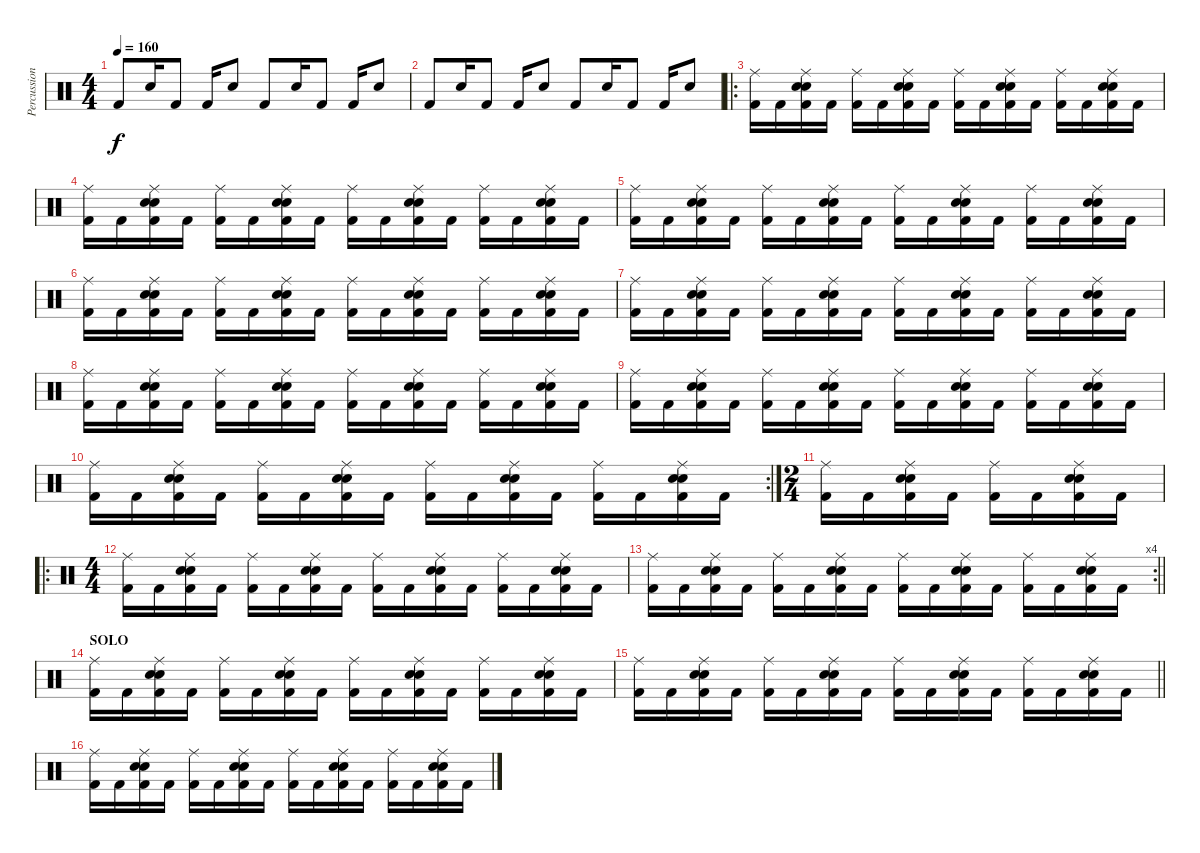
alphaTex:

\track ("Percussion" "Percussion") {instrument percussion}
\staff {score}
\articulation defaults
\ts (4 4)
\tempo 160
\clef neutral
\ks c "Kick (hit) 2".8{dy f} "Electric Snare (hit)".16 "Kick (hit) 2".8 "Kick (hit) 2".16 "Electric Snare (hit)".8 "Kick (hit) 2".8 "Electric Snare (hit)".16 "Kick (hit) 2".8 "Kick (hit) 2".16 "Electric Snare (hit)".8
|
"Kick (hit) 2".8 "Electric Snare (hit)".16 "Kick (hit) 2".8 "Kick (hit) 2".16 "Electric Snare (hit)".8 "Kick (hit) 2".8 "Electric Snare (hit)".16 "Kick (hit) 2".8 "Kick (hit) 2".16 "Electric Snare (hit)".8 |
\ro
("Ride (middle)" "Kick (hit) 2").16 "Kick (hit) 2".16 ("Electric Snare (hit)" "Snare (hit) 2" "Ride (middle)" "Kick (hit) 2").16 "Kick (hit) 2".16 ("Ride (middle)" "Kick (hit) 2").16 "Kick (hit) 2".16 ("Electric Snare (hit)" "Snare (hit) 2" "Ride (middle)" "Kick (hit) 2").16 "Kick (hit) 2".16 ("Ride (middle)" "Kick (hit) 2").16 "Kick (hit) 2".16 ("Electric Snare (hit)" "Snare (hit) 2" "Ride (middle)" "Kick (hit) 2").16 "Kick (hit) 2".16 ("Ride (middle)" "Kick (hit) 2").16 "Kick (hit) 2".16 ("Electric Snare (hit)" "Snare (hit) 2" "Ride (middle)" "Kick (hit) 2").16 "Kick (hit) 2".16 |
("Ride (middle)" "Kick (hit) 2").16 "Kick (hit) 2".16 ("Electric Snare (hit)" "Snare (hit) 2" "Ride (middle)" "Kick (hit) 2").16 "Kick (hit) 2".16 ("Ride (middle)" "Kick (hit) 2").16 "Kick (hit) 2".16 ("Electric Snare (hit)" "Snare (hit) 2" "Ride (middle)" "Kick (hit) 2").16 "Kick (hit) 2".16 ("Ride (middle)" "Kick (hit) 2").16 "Kick (hit) 2".16 ("Electric Snare (hit)" "Snare (hit) 2" "Ride (middle)" "Kick (hit) 2").16 "Kick (hit) 2".16 ("Ride (middle)" "Kick (hit) 2").16 "Kick (hit) 2".16 ("Electric Snare (hit)" "Snare (hit) 2" "Ride (middle)" "Kick (hit) 2").16 "Kick (hit) 2".16 |
("Ride (middle)" "Kick (hit) 2").16 "Kick (hit) 2".16 ("Electric Snare (hit)" "Snare (hit) 2" "Ride (middle)" "Kick (hit) 2").16 "Kick (hit) 2".16 ("Ride (middle)" "Kick (hit) 2").16 "Kick (hit) 2".16 ("Electric Snare (hit)" "Snare (hit) 2" "Ride (middle)" "Kick (hit) 2").16 "Kick (hit) 2".16 ("Ride (middle)" "Kick (hit) 2").16 "Kick (hit) 2".16 ("Electric Snare (hit)" "Snare (hit) 2" "Ride (middle)" "Kick (hit) 2").16 "Kick (hit) 2".16 ("Ride (middle)" "Kick (hit) 2").16 "Kick (hit) 2".16 ("Electric Snare (hit)" "Snare (hit) 2" "Ride (middle)" "Kick (hit) 2").16 "Kick (hit) 2".16 |
("Ride (middle)" "Kick (hit) 2").16 "Kick (hit) 2".16 ("Electric Snare (hit)" "Snare (hit) 2" "Ride (middle)" "Kick (hit) 2").16 "Kick (hit) 2".16 ("Ride (middle)" "Kick (hit) 2").16 "Kick (hit) 2".16 ("Electric Snare (hit)" "Snare (hit) 2" "Ride (middle)" "Kick (hit) 2").16 "Kick (hit) 2".16 ("Ride (middle)" "Kick (hit) 2").16 "Kick (hit) 2".16 ("Electric Snare (hit)" "Snare (hit) 2" "Ride (middle)" "Kick (hit) 2").16 "Kick (hit) 2".16 ("Ride (middle)" "Kick (hit) 2").16 "Kick (hit) 2".16 ("Electric Snare (hit)" "Snare (hit) 2" "Ride (middle)" "Kick (hit) 2").16 "Kick (hit) 2".16 |
("Ride (middle)" "Kick (hit) 2").16 "Kick (hit) 2".16 ("Electric Snare (hit)" "Snare (hit) 2" "Ride (middle)" "Kick (hit) 2").16 "Kick (hit) 2".16 ("Ride (middle)" "Kick (hit) 2").16 "Kick (hit) 2".16 ("Electric Snare (hit)" "Snare (hit) 2" "Ride (middle)" "Kick (hit) 2").16 "Kick (hit) 2".16 ("Ride (middle)" "Kick (hit) 2").16 "Kick (hit) 2".16 ("Electric Snare (hit)" "Snare (hit) 2" "Ride (middle)" "Kick (hit) 2").16 "Kick (hit) 2".16 ("Ride (middle)" "Kick (hit) 2").16 "Kick (hit) 2".16 ("Electric Snare (hit)" "Snare (hit) 2" "Ride (middle)" "Kick (hit) 2").16 "Kick (hit) 2".16 |
("Ride (middle)" "Kick (hit) 2").16 "Kick (hit) 2".16 ("Electric Snare (hit)" "Snare (hit) 2" "Ride (middle)" "Kick (hit) 2").16 "Kick (hit) 2".16 ("Ride (middle)" "Kick (hit) 2").16 "Kick (hit) 2".16 ("Electric Snare (hit)" "Snare (hit) 2" "Ride (middle)" "Kick (hit) 2").16 "Kick (hit) 2".16 ("Ride (middle)" "Kick (hit) 2").16 "Kick (hit) 2".16 ("Electric Snare (hit)" "Snare (hit) 2" "Ride (middle)" "Kick (hit) 2").16 "Kick (hit) 2".16 ("Ride (middle)" "Kick (hit) 2").16 "Kick (hit) 2".16 ("Electric Snare (hit)" "Snare (hit) 2" "Ride (middle)" "Kick (hit) 2").16 "Kick (hit) 2".16 |
("Ride (middle)" "Kick (hit) 2").16 "Kick (hit) 2".16 ("Electric Snare (hit)" "Snare (hit) 2" "Ride (middle)" "Kick (hit) 2").16 "Kick (hit) 2".16 ("Ride (middle)" "Kick (hit) 2").16 "Kick (hit) 2".16 ("Electric Snare (hit)" "Snare (hit) 2" "Ride (middle)" "Kick (hit) 2").16 "Kick (hit) 2".16 ("Ride (middle)" "Kick (hit) 2").16 "Kick (hit) 2".16 ("Electric Snare (hit)" "Snare (hit) 2" "Ride (middle)" "Kick (hit) 2").16 "Kick (hit) 2".16 ("Ride (middle)" "Kick (hit) 2").16 "Kick (hit) 2".16 ("Electric Snare (hit)" "Snare (hit) 2" "Ride (middle)" "Kick (hit) 2").16 "Kick (hit) 2".16 |
\rc 2
("Ride (middle)" "Kick (hit) 2").16 "Kick (hit) 2".16 ("Electric Snare (hit)" "Snare (hit) 2" "Ride (middle)" "Kick (hit) 2").16 "Kick (hit) 2".16 ("Ride (middle)" "Kick (hit) 2").16 "Kick (hit) 2".16 ("Electric Snare (hit)" "Snare (hit) 2" "Ride (middle)" "Kick (hit) 2").16 "Kick (hit) 2".16 ("Ride (middle)" "Kick (hit) 2").16 "Kick (hit) 2".16 ("Electric Snare (hit)" "Snare (hit) 2" "Ride (middle)" "Kick (hit) 2").16 "Kick (hit) 2".16 ("Ride (middle)" "Kick (hit) 2").16 "Kick (hit) 2".16 ("Electric Snare (hit)" "Snare (hit) 2" "Ride (middle)" "Kick (hit) 2").16 "Kick (hit) 2".16 |
\ts (2 4)
("Ride (middle)" "Kick (hit) 2").16 "Kick (hit) 2".16 ("Electric Snare (hit)" "Snare (hit) 2" "Ride (middle)" "Kick (hit) 2").16 "Kick (hit) 2".16 ("Ride (middle)" "Kick (hit) 2").16 "Kick (hit) 2".16 ("Electric Snare (hit)" "Snare (hit) 2" "Ride (middle)" "Kick (hit) 2").16 "Kick (hit) 2".16 |
\ro
\ts (4 4)
("Ride (middle)" "Kick (hit) 2").16 "Kick (hit) 2".16 ("Electric Snare (hit)" "Snare (hit) 2" "Ride (middle)" "Kick (hit) 2").16 "Kick (hit) 2".16 ("Ride (middle)" "Kick (hit) 2").16 "Kick (hit) 2".16 ("Electric Snare (hit)" "Snare (hit) 2" "Ride (middle)" "Kick (hit) 2").16 "Kick (hit) 2".16 ("Ride (middle)" "Kick (hit) 2").16 "Kick (hit) 2".16 ("Electric Snare (hit)" "Snare (hit) 2" "Ride (middle)" "Kick (hit) 2").16 "Kick (hit) 2".16 ("Ride (middle)" "Kick (hit) 2").16 "Kick (hit) 2".16 ("Electric Snare (hit)" "Snare (hit) 2" "Ride (middle)" "Kick (hit) 2").16 "Kick (hit) 2".16 |
\rc 4
\barLineRight lightlight
("Ride (middle)" "Kick (hit) 2").16 "Kick (hit) 2".16 ("Electric Snare (hit)" "Snare (hit) 2" "Ride (middle)" "Kick (hit) 2").16 "Kick (hit) 2".16 ("Ride (middle)" "Kick (hit) 2").16 "Kick (hit) 2".16 ("Electric Snare (hit)" "Snare (hit) 2" "Ride (middle)" "Kick (hit) 2").16 "Kick (hit) 2".16 ("Ride (middle)" "Kick (hit) 2").16 "Kick (hit) 2".16 ("Electric Snare (hit)" "Snare (hit) 2" "Ride (middle)" "Kick (hit) 2").16 "Kick (hit) 2".16 ("Ride (middle)" "Kick (hit) 2").16 "Kick (hit) 2".16 ("Electric Snare (hit)" "Snare (hit) 2" "Ride (middle)" "Kick (hit) 2").16 "Kick (hit) 2".16 |
\section ("" "SOLO")
("Ride (middle)" "Kick (hit) 2").16 "Kick (hit) 2".16 ("Electric Snare (hit)" "Snare (hit) 2" "Ride (middle)" "Kick (hit) 2").16 "Kick (hit) 2".16 ("Ride (middle)" "Kick (hit) 2").16 "Kick (hit) 2".16 ("Electric Snare (hit)" "Snare (hit) 2" "Ride (middle)" "Kick (hit) 2").16 "Kick (hit) 2".16 ("Ride (middle)" "Kick (hit) 2").16 "Kick (hit) 2".16 ("Electric Snare (hit)" "Snare (hit) 2" "Ride (middle)" "Kick (hit) 2").16 "Kick (hit) 2".16 ("Ride (middle)" "Kick (hit) 2").16 "Kick (hit) 2".16 ("Electric Snare (hit)" "Snare (hit) 2" "Ride (middle)" "Kick (hit) 2").16 "Kick (hit) 2".16 |
\barLineRight lightlight
("Ride (middle)" "Kick (hit) 2").16 "Kick (hit) 2".16 ("Electric Snare (hit)" "Snare (hit) 2" "Ride (middle)" "Kick (hit) 2").16 "Kick (hit) 2".16 ("Ride (middle)" "Kick (hit) 2").16 "Kick (hit) 2".16 ("Electric Snare (hit)" "Snare (hit) 2" "Ride (middle)" "Kick (hit) 2").16 "Kick (hit) 2".16 ("Ride (middle)" "Kick (hit) 2").16 "Kick (hit) 2".16 ("Electric Snare (hit)" "Snare (hit) 2" "Ride (middle)" "Kick (hit) 2").16 "Kick (hit) 2".16 ("Ride (middle)" "Kick (hit) 2").16 "Kick (hit) 2".16 ("Electric Snare (hit)" "Snare (hit) 2" "Ride (middle)" "Kick (hit) 2").16 "Kick (hit) 2".16 |
("Ride (middle)" "Kick (hit) 2").16 "Kick (hit) 2".16 ("Electric Snare (hit)" "Snare (hit) 2" "Ride (middle)" "Kick (hit) 2").16 "Kick (hit) 2".16 ("Ride (middle)" "Kick (hit) 2").16 "Kick (hit) 2".16 ("Electric Snare (hit)" "Snare (hit) 2" "Ride (middle)" "Kick (hit) 2").16 "Kick (hit) 2".16 ("Ride (middle)" "Kick (hit) 2").16 "Kick (hit) 2".16 ("Electric Snare (hit)" "Snare (hit) 2" "Ride (middle)" "Kick (hit) 2").16 "Kick (hit) 2".16 ("Ride (middle)" "Kick (hit) 2").16 "Kick (hit) 2".16 ("Electric Snare (hit)" "Snare (hit) 2" "Ride (middle)" "Kick (hit) 2").16 "Kick (hit) 2".16
